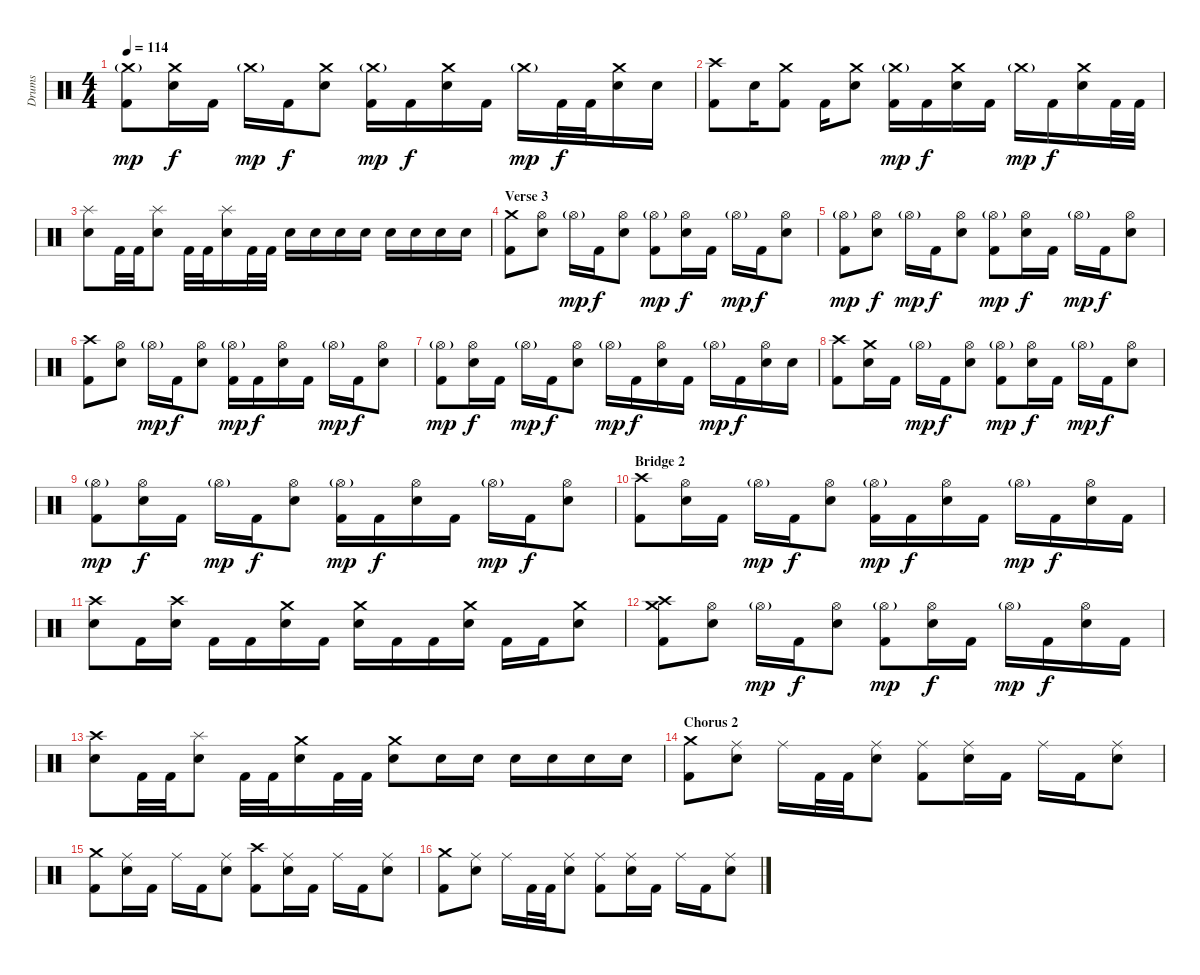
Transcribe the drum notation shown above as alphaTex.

\track ("Drums" "Drums") {instrument percussion}
\staff {score}
\articulation defaults
\ts (4 4)
\tempo 114
\clef neutral
\ks c
("Crash medium (hit)"{g} "Kick (hit) 2").8{dy mp} ("Crash medium (hit)" "Snare (hit) 2").16{dy f} "Kick (hit) 2".16 "Crash medium (hit)"{g}.16{dy mp} "Kick (hit) 2".16{dy f} ("Crash medium (hit)" "Snare (hit) 2").8 ("Crash medium (hit)"{g} "Kick (hit) 2").16{dy mp} "Kick (hit) 2".16{dy f} ("Crash medium (hit)" "Snare (hit) 2").16 "Kick (hit) 2".16 "Crash medium (hit)"{g}.16{dy mp} "Kick (hit) 2".32{dy f} "Kick (hit) 2".32 ("Crash medium (hit)" "Snare (hit) 2").16 "Snare (hit) 2".16 |
("Crash high (hit)" "Kick (hit) 2").8 "Snare (hit) 2".16 ("Crash medium (hit)" "Kick (hit) 2").8 "Kick (hit) 2".16 ("Crash medium (hit)" "Snare (hit) 2").8 ("Crash medium (hit)"{g} "Kick (hit) 2").16{dy mp} "Kick (hit) 2".16{dy f} ("Crash medium (hit)" "Snare (hit) 2").16 "Kick (hit) 2".16 "Crash medium (hit)"{g}.16{dy mp} "Kick (hit) 2".16{dy f} ("Crash medium (hit)" "Snare (hit) 2").16 "Kick (hit) 2".32 "Kick (hit) 2".32 |
("Splash (hit)" "Snare (hit) 2").8 "Kick (hit) 2".32 "Kick (hit) 2".32 ("Splash (hit)" "Snare (hit) 2").8 "Kick (hit) 2".32 "Kick (hit) 2".32 ("Splash (hit)" "Snare (hit) 2").16 "Kick (hit) 2".32 "Kick (hit) 2".32 "Snare (hit) 2".16 "Snare (hit) 2".16 "Snare (hit) 2".16 "Snare (hit) 2".16 "Snare (hit) 2".16 "Snare (hit) 2".16 "Snare (hit) 2".16 "Snare (hit) 2".16 |
\section ("" "Verse 3")
("Crash medium (hit)" "Kick (hit) 2").8 ("Hi-Hat (open)" "Snare (hit) 2").8 "Hi-Hat (open)"{g}.16{dy mp} "Kick (hit) 2".16{dy f} ("Hi-Hat (open)" "Snare (hit) 2").8 ("Hi-Hat (open)"{g} "Kick (hit) 2").8{dy mp} ("Hi-Hat (open)" "Snare (hit) 2").16{dy f} "Kick (hit) 2".16 "Hi-Hat (open)"{g}.16{dy mp} "Kick (hit) 2".16{dy f} ("Hi-Hat (open)" "Snare (hit) 2").8 |
("Hi-Hat (open)"{g} "Kick (hit) 2").8{dy mp} ("Hi-Hat (open)" "Snare (hit) 2").8{dy f} "Hi-Hat (open)"{g}.16{dy mp} "Kick (hit) 2".16{dy f} ("Hi-Hat (open)" "Snare (hit) 2").8 ("Hi-Hat (open)"{g} "Kick (hit) 2").8{dy mp} ("Hi-Hat (open)" "Snare (hit) 2").16{dy f} "Kick (hit) 2".16 "Hi-Hat (open)"{g}.16{dy mp} "Kick (hit) 2".16{dy f} ("Hi-Hat (open)" "Snare (hit) 2").8 |
("Crash high (hit)" "Kick (hit) 2").8 ("Hi-Hat (open)" "Snare (hit) 2").8 "Hi-Hat (open)"{g}.16{dy mp} "Kick (hit) 2".16{dy f} ("Hi-Hat (open)" "Snare (hit) 2").8 ("Hi-Hat (open)"{g} "Kick (hit) 2").16{dy mp} "Kick (hit) 2".16{dy f} ("Hi-Hat (open)" "Snare (hit) 2").16 "Kick (hit) 2".16 "Hi-Hat (open)"{g}.16{dy mp} "Kick (hit) 2".16{dy f} ("Hi-Hat (open)" "Snare (hit) 2").8 |
("Hi-Hat (open)"{g} "Kick (hit) 2").8{dy mp} ("Hi-Hat (open)" "Snare (hit) 2").16{dy f} "Kick (hit) 2".16 "Hi-Hat (open)"{g}.16{dy mp} "Kick (hit) 2".16{dy f} ("Hi-Hat (open)" "Snare (hit) 2").8 "Hi-Hat (open)"{g}.16{dy mp} "Kick (hit) 2".16{dy f} ("Hi-Hat (open)" "Snare (hit) 2").16 "Kick (hit) 2".16 "Hi-Hat (open)"{g}.16{dy mp} "Kick (hit) 2".16{dy f} ("Hi-Hat (open)" "Snare (hit) 2").16 "Snare (hit) 2".16 |
("Crash high (hit)" "Kick (hit) 2").8 ("Crash medium (hit)" "Snare (hit) 2").16 "Kick (hit) 2".16 "Hi-Hat (open)"{g}.16{dy mp} "Kick (hit) 2".16{dy f} ("Hi-Hat (open)" "Snare (hit) 2").8 ("Hi-Hat (open)"{g} "Kick (hit) 2").8{dy mp} ("Hi-Hat (open)" "Snare (hit) 2").16{dy f} "Kick (hit) 2".16 "Hi-Hat (open)"{g}.16{dy mp} "Kick (hit) 2".16{dy f} ("Hi-Hat (open)" "Snare (hit) 2").8 |
("Hi-Hat (open)"{g} "Kick (hit) 2").8{dy mp} ("Hi-Hat (open)" "Snare (hit) 2").16{dy f} "Kick (hit) 2".16 "Hi-Hat (open)"{g}.16{dy mp} "Kick (hit) 2".16{dy f} ("Hi-Hat (open)" "Snare (hit) 2").8 ("Hi-Hat (open)"{g} "Kick (hit) 2").16{dy mp} "Kick (hit) 2".16{dy f} ("Hi-Hat (open)" "Snare (hit) 2").16 "Kick (hit) 2".16 "Hi-Hat (open)"{g}.16{dy mp} "Kick (hit) 2".16{dy f} ("Hi-Hat (open)" "Snare (hit) 2").8 |
\section ("" "Bridge 2")
("Crash high (hit)" "Kick (hit) 2").8 ("Hi-Hat (open)" "Snare (hit) 2").16 "Kick (hit) 2".16 "Hi-Hat (open)"{g}.16{dy mp} "Kick (hit) 2".16{dy f} ("Hi-Hat (open)" "Snare (hit) 2").8 ("Hi-Hat (open)"{g} "Kick (hit) 2").16{dy mp} "Kick (hit) 2".16{dy f} ("Hi-Hat (open)" "Snare (hit) 2").16 "Kick (hit) 2".16 "Hi-Hat (open)"{g}.16{dy mp} "Kick (hit) 2".16{dy f} ("Hi-Hat (open)" "Snare (hit) 2").16 "Kick (hit) 2".16 |
("Crash high (hit)" "Snare (hit) 2").8 "Kick (hit) 2".16 ("Crash high (hit)" "Snare (hit) 2").16 "Kick (hit) 2".16 "Kick (hit) 2".16 ("Crash medium (hit)" "Snare (hit) 2").16 "Kick (hit) 2".16 ("Crash medium (hit)" "Snare (hit) 2").16 "Kick (hit) 2".16 "Kick (hit) 2".16 ("Crash medium (hit)" "Snare (hit) 2").16 "Kick (hit) 2".16 "Kick (hit) 2".16 ("Crash medium (hit)" "Snare (hit) 2").8 |
("Crash medium (hit)" "Crash high (hit)" "Kick (hit) 2").8 ("Hi-Hat (open)" "Snare (hit) 2").8 "Hi-Hat (open)"{g}.16{dy mp} "Kick (hit) 2".16{dy f} ("Hi-Hat (open)" "Snare (hit) 2").8 ("Hi-Hat (open)"{g} "Kick (hit) 2").8{dy mp} ("Hi-Hat (open)" "Snare (hit) 2").16{dy f} "Kick (hit) 2".16 "Hi-Hat (open)"{g}.16{dy mp} "Kick (hit) 2".16{dy f} ("Hi-Hat (open)" "Snare (hit) 2").16 "Kick (hit) 2".16 |
("Crash high (hit)" "Snare (hit) 2").8 "Kick (hit) 2".32 "Kick (hit) 2".32 ("Splash (hit)" "Snare (hit) 2").8 "Kick (hit) 2".32 "Kick (hit) 2".32 ("Crash medium (hit)" "Snare (hit) 2").16 "Kick (hit) 2".32 "Kick (hit) 2".32 ("Crash medium (hit)" "Snare (hit) 2").8 "Snare (hit) 2".16 "Snare (hit) 2".16 "Snare (hit) 2".16 "Snare (hit) 2".16 "Snare (hit) 2".16 "Snare (hit) 2".16 |
\section ("" "Chorus 2")
("Crash medium (hit)" "Kick (hit) 2").8 ("Ride (middle)" "Snare (hit) 2").8 "Ride (middle)".16 "Kick (hit) 2".32 "Kick (hit) 2".32 ("Ride (middle)" "Snare (hit) 2").8 ("Ride (middle)" "Kick (hit) 2").8 ("Ride (middle)" "Snare (hit) 2").16 "Kick (hit) 2".16 "Ride (middle)".16 "Kick (hit) 2".16 ("Ride (middle)" "Snare (hit) 2").8 |
("Crash medium (hit)" "Kick (hit) 2").8 ("Ride (middle)" "Snare (hit) 2").16 "Kick (hit) 2".16 "Ride (middle)".16 "Kick (hit) 2".16 ("Ride (middle)" "Snare (hit) 2").8 ("Crash high (hit)" "Kick (hit) 2").8 ("Ride (middle)" "Snare (hit) 2").16 "Kick (hit) 2".16 "Ride (middle)".16 "Kick (hit) 2".16 ("Ride (middle)" "Snare (hit) 2").8 |
("Crash medium (hit)" "Kick (hit) 2").8 ("Ride (middle)" "Snare (hit) 2").8 "Ride (middle)".16 "Kick (hit) 2".32 "Kick (hit) 2".32 ("Ride (middle)" "Snare (hit) 2").8 ("Ride (middle)" "Kick (hit) 2").8 ("Ride (middle)" "Snare (hit) 2").16 "Kick (hit) 2".16 "Ride (middle)".16 "Kick (hit) 2".16 ("Ride (middle)" "Snare (hit) 2").8
